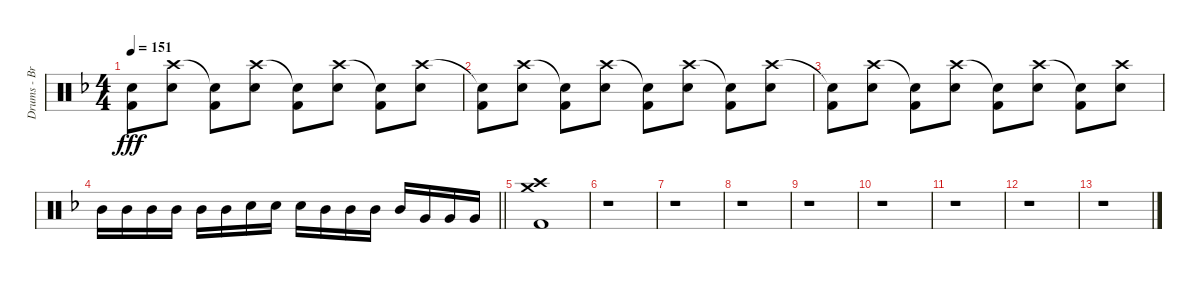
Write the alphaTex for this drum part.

\track ("Drums - Brooks Wackerman" "Drums - Br") {instrument percussion}
\staff {score}
\articulation defaults
\ts (4 4)
\tempo 151
\clef neutral
\ks f
("Snare (hit)"{t} "Kick (hit) 2").8{dy fff} ("Crash high (hit)" "Snare (hit) 2").8 ("Snare (hit)"{t} "Kick (hit) 2").8 ("Crash high (hit)" "Snare (hit) 2").8 ("Snare (hit)"{t} "Kick (hit) 2").8 ("Crash high (hit)" "Snare (hit) 2").8 ("Snare (hit)"{t} "Kick (hit) 2").8 ("Crash high (hit)" "Snare (hit) 2").8 |
("Snare (hit)"{t} "Kick (hit) 2").8 ("Crash high (hit)" "Snare (hit) 2").8 ("Snare (hit)"{t} "Kick (hit) 2").8 ("Crash high (hit)" "Snare (hit) 2").8 ("Snare (hit)"{t} "Kick (hit) 2").8 ("Crash high (hit)" "Snare (hit) 2").8 ("Snare (hit)"{t} "Kick (hit) 2").8 ("Crash high (hit)" "Snare (hit) 2").8 |
("Snare (hit)"{t} "Kick (hit) 2").8 ("Crash high (hit)" "Snare (hit) 2").8 ("Snare (hit)"{t} "Kick (hit) 2").8 ("Crash high (hit)" "Snare (hit) 2").8 ("Snare (hit)"{t} "Kick (hit) 2").8 ("Crash high (hit)" "Snare (hit) 2").8 ("Snare (hit)"{t} "Kick (hit) 2").8 ("Crash high (hit)" "Snare (hit) 2").8 |
\barLineRight lightlight "Mid Tom (hit)".16 "Mid Tom (hit)".16 "Mid Tom (hit)".16 "Mid Tom (hit)".16 "Mid Tom (hit)".16 "Mid Tom (hit)".16 "Snare (hit) 2".16 "Snare (hit) 2".16 "Snare (hit) 2".16 "Mid Tom (hit)".16 "Mid Tom (hit)".16 "Mid Tom (hit)".16 "Mid Tom (hit)".16 "Very Low Tom (hit)".16 "Very Low Tom (hit)".16 "Very Low Tom (hit)".16
|
("Crash high (hit)" "Crash medium (hit)" "Kick (hit) 2").1 |
r.1 |
r.1 |
r.1 |
r.1 |
r.1 |
r.1 |
r.1 |
r.1
